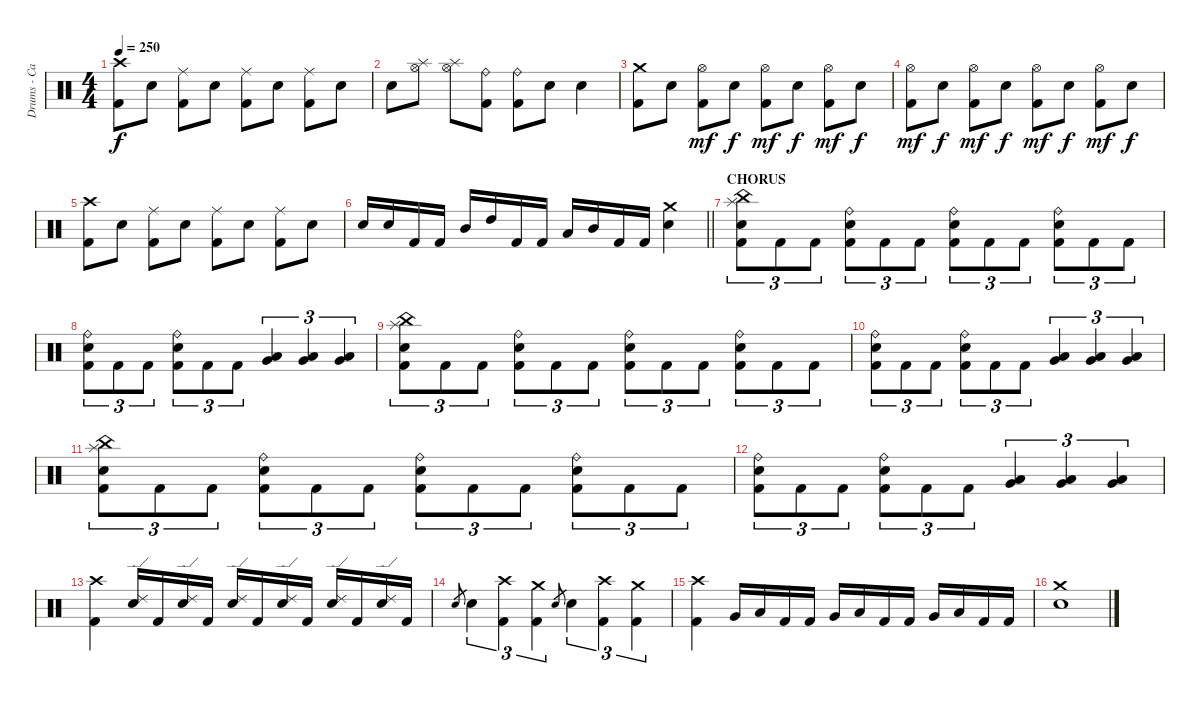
\track ("Drums - Carlos Cruz" "Drums - Ca") {instrument percussion}
\staff {score}
\articulation defaults
\ts (4 4)
\tempo 250
\clef neutral
\ks c
("Crash high (hit)" "Kick (hit) 2").8{dy f} "Snare (hit) 2".8 ("Ride (middle)" "Kick (hit) 2").8 "Snare (hit) 2".8 ("Ride (middle)" "Kick (hit) 2").8 "Snare (hit) 2".8 ("Ride (middle)" "Kick (hit) 2").8 "Snare (hit) 2".8 |
"Snare (hit) 2".8 ("Splash (hit)" "Hi-Hat (open)").8 ("Splash (hit)" "Hi-Hat (open)").8 ("Ride (bell)" "Kick (hit) 2").8 ("Ride (bell)" "Kick (hit) 2").8 "Snare (hit) 2".8 "Snare (hit) 2".4 |
("Crash medium (hit)" "Kick (hit) 2").8 "Snare (hit) 2".8 ("Hi-Hat (open)" "Kick (hit) 2").8{dy mf} "Snare (hit) 2".8{dy f} ("Hi-Hat (open)" "Kick (hit) 2").8{dy mf} "Snare (hit) 2".8{dy f} ("Hi-Hat (open)" "Kick (hit) 2").8{dy mf} "Snare (hit) 2".8{dy f} |
("Hi-Hat (open)" "Kick (hit) 2").8{dy mf} "Snare (hit) 2".8{dy f} ("Hi-Hat (open)" "Kick (hit) 2").8{dy mf} "Snare (hit) 2".8{dy f} ("Hi-Hat (open)" "Kick (hit) 2").8{dy mf} "Snare (hit) 2".8{dy f} ("Hi-Hat (open)" "Kick (hit) 2").8{dy mf} "Snare (hit) 2".8{dy f} |
("Crash high (hit)" "Kick (hit) 2").8 "Snare (hit) 2".8 ("Ride (middle)" "Kick (hit) 2").8 "Snare (hit) 2".8 ("Ride (middle)" "Kick (hit) 2").8 "Snare (hit) 2".8 ("Ride (middle)" "Kick (hit) 2").8 "Snare (hit) 2".8 |
\barLineRight lightlight "Snare (hit) 2".16 "Snare (hit) 2".16 "Kick (hit) 2".16 "Kick (hit) 2".16 "Mid Tom (hit)".16 "High Tom (hit)".16 "Kick (hit) 2".16 "Kick (hit) 2".16 "Low Tom (hit)".16 "Mid Tom (hit)".16 "Kick (hit) 2".16 "Kick (hit) 2".16
("Crash medium (hit)" "Snare (hit) 2").4 |
\section ("" "CHORUS")
("China (hit)" "Splash (hit)" "Snare (hit) 2" "Kick (hit) 2").8{tu (3 2)} "Kick (hit) 2".8{tu (3 2)} "Kick (hit) 2".8{tu (3 2)} ("Ride (bell)" "Snare (hit) 2" "Kick (hit) 2").8{tu (3 2)} "Kick (hit) 2".8{tu (3 2)} "Kick (hit) 2".8{tu (3 2)} ("Ride (bell)" "Snare (hit) 2" "Kick (hit) 2").8{tu (3 2)} "Kick (hit) 2".8{tu (3 2)} "Kick (hit) 2".8{tu (3 2)} ("Ride (bell)" "Snare (hit) 2" "Kick (hit) 2").8{tu (3 2)} "Kick (hit) 2".8{tu (3 2)} "Kick (hit) 2".8{tu (3 2)} |
("Ride (bell)" "Snare (hit) 2" "Kick (hit) 2").8{tu (3 2)} "Kick (hit) 2".8{tu (3 2)} "Kick (hit) 2".8{tu (3 2)} ("Ride (bell)" "Snare (hit) 2" "Kick (hit) 2").8{tu (3 2)} "Kick (hit) 2".8{tu (3 2)} "Kick (hit) 2".8{tu (3 2)} ("Low Tom (hit)" "Very Low Tom (hit)").4{tu (3 2)} ("Low Tom (hit)" "Very Low Tom (hit)").4{tu (3 2)} ("Low Tom (hit)" "Very Low Tom (hit)").4{tu (3 2)} |
("China (hit)" "Splash (hit)" "Snare (hit) 2" "Kick (hit) 2").8{tu (3 2)} "Kick (hit) 2".8{tu (3 2)} "Kick (hit) 2".8{tu (3 2)} ("Ride (bell)" "Snare (hit) 2" "Kick (hit) 2").8{tu (3 2)} "Kick (hit) 2".8{tu (3 2)} "Kick (hit) 2".8{tu (3 2)} ("Ride (bell)" "Snare (hit) 2" "Kick (hit) 2").8{tu (3 2)} "Kick (hit) 2".8{tu (3 2)} "Kick (hit) 2".8{tu (3 2)} ("Ride (bell)" "Snare (hit) 2" "Kick (hit) 2").8{tu (3 2)} "Kick (hit) 2".8{tu (3 2)} "Kick (hit) 2".8{tu (3 2)} |
("Ride (bell)" "Snare (hit) 2" "Kick (hit) 2").8{tu (3 2)} "Kick (hit) 2".8{tu (3 2)} "Kick (hit) 2".8{tu (3 2)} ("Ride (bell)" "Snare (hit) 2" "Kick (hit) 2").8{tu (3 2)} "Kick (hit) 2".8{tu (3 2)} "Kick (hit) 2".8{tu (3 2)} ("Low Tom (hit)" "Very Low Tom (hit)").4{tu (3 2)} ("Low Tom (hit)" "Very Low Tom (hit)").4{tu (3 2)} ("Low Tom (hit)" "Very Low Tom (hit)").4{tu (3 2)} |
("China (hit)" "Splash (hit)" "Snare (hit) 2" "Kick (hit) 2").8{tu (3 2)} "Kick (hit) 2".8{tu (3 2)} "Kick (hit) 2".8{tu (3 2)} ("Ride (bell)" "Snare (hit) 2" "Kick (hit) 2").8{tu (3 2)} "Kick (hit) 2".8{tu (3 2)} "Kick (hit) 2".8{tu (3 2)} ("Ride (bell)" "Snare (hit) 2" "Kick (hit) 2").8{tu (3 2)} "Kick (hit) 2".8{tu (3 2)} "Kick (hit) 2".8{tu (3 2)} ("Ride (bell)" "Snare (hit) 2" "Kick (hit) 2").8{tu (3 2)} "Kick (hit) 2".8{tu (3 2)} "Kick (hit) 2".8{tu (3 2)} |
("Ride (bell)" "Snare (hit) 2" "Kick (hit) 2").8{tu (3 2)} "Kick (hit) 2".8{tu (3 2)} "Kick (hit) 2".8{tu (3 2)} ("Ride (bell)" "Snare (hit) 2" "Kick (hit) 2").8{tu (3 2)} "Kick (hit) 2".8{tu (3 2)} "Kick (hit) 2".8{tu (3 2)} ("Low Tom (hit)" "Very Low Tom (hit)").4{tu (3 2)} ("Low Tom (hit)" "Very Low Tom (hit)").4{tu (3 2)} ("Low Tom (hit)" "Very Low Tom (hit)").4{tu (3 2)} |
("Crash high (hit)" "Kick (hit) 2").4 ("Ride (edge) 2" "Snare (hit) 2").16 "Kick (hit) 2".16 ("Ride (edge) 2" "Snare (hit) 2").16 "Kick (hit) 2".16 ("Ride (edge) 2" "Snare (hit) 2").16 "Kick (hit) 2".16 ("Ride (edge) 2" "Snare (hit) 2").16 "Kick (hit) 2".16 ("Ride (edge) 2" "Snare (hit) 2").16 "Kick (hit) 2".16 ("Ride (edge) 2" "Snare (hit) 2").16 "Kick (hit) 2".16 |
"Snare (hit) 2".8{gr} "Snare (hit) 2".4{tu (3 2)} ("Crash high (hit)" "Kick (hit) 2").4{tu (3 2)} ("Crash medium (hit)" "Kick (hit) 2").4{tu (3 2)} "Snare (hit) 2".8{gr} "Snare (hit) 2".4{tu (3 2)} ("Crash high (hit)" "Kick (hit) 2").4{tu (3 2)} ("Crash medium (hit)" "Kick (hit) 2").4{tu (3 2)} |
("Crash high (hit)" "Kick (hit) 2").4 "Very Low Tom (hit)".16 "Low Tom (hit)".16 "Kick (hit) 2".16 "Kick (hit) 2".16 "Very Low Tom (hit)".16 "Low Tom (hit)".16 "Kick (hit) 2".16 "Kick (hit) 2".16 "Very Low Tom (hit)".16 "Low Tom (hit)".16 "Kick (hit) 2".16 "Kick (hit) 2".16 |
("Crash medium (hit)" "Snare (hit) 2").1
